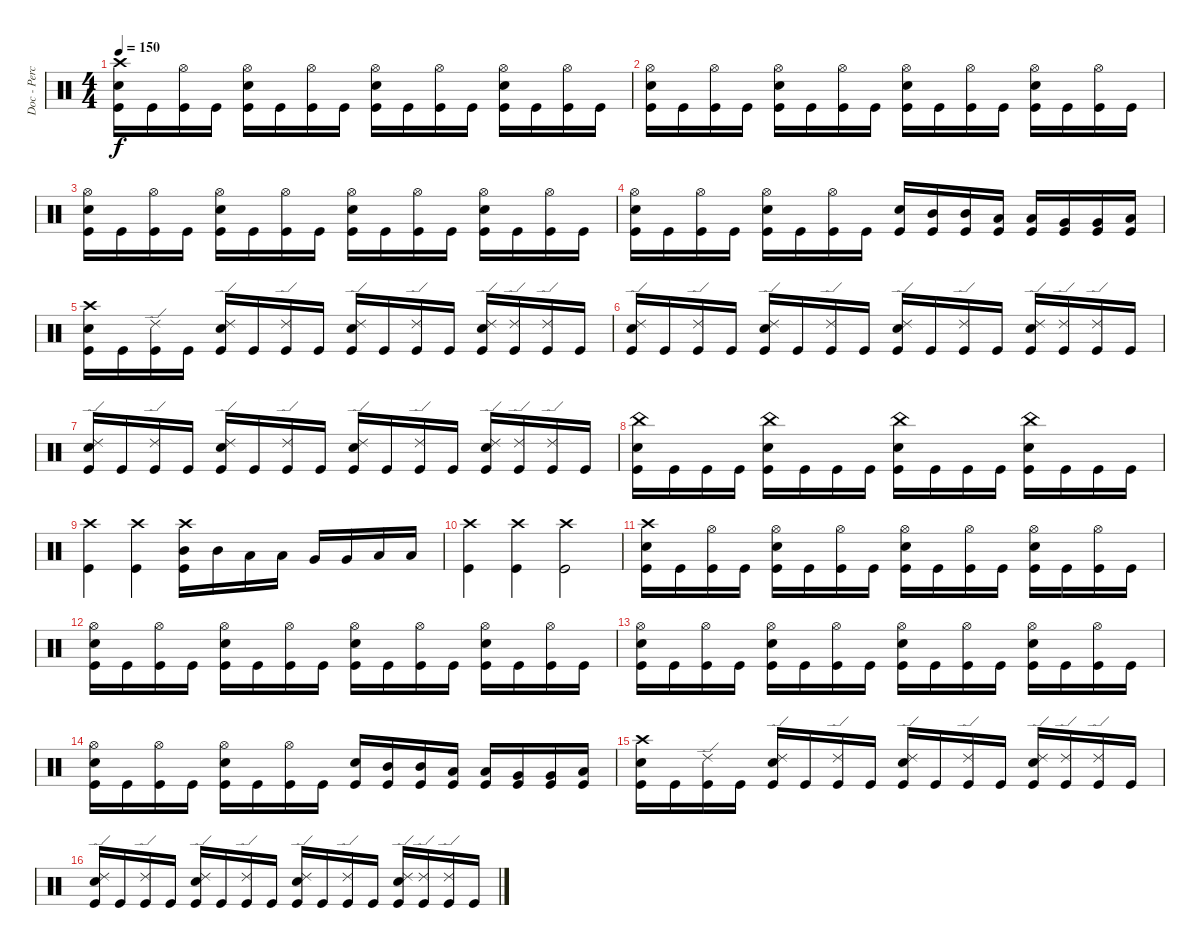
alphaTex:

\track ("Doc - Percussion" "Doc - Perc") {instrument percussion}
\staff {score}
\articulation defaults
\ts (4 4)
\tempo 150
\clef neutral
\ks c
("Crash high (hit)" "Electric Snare (hit)" "Kick (hit)").16{dy f} "Kick (hit)".16 ("Hi-Hat (open)" "Kick (hit)").16 "Kick (hit)".16 ("Hi-Hat (open)" "Electric Snare (hit)" "Kick (hit)").16 "Kick (hit)".16 ("Hi-Hat (open)" "Kick (hit)").16 "Kick (hit)".16 ("Hi-Hat (open)" "Electric Snare (hit)" "Kick (hit)").16 "Kick (hit)".16 ("Hi-Hat (open)" "Kick (hit)").16 "Kick (hit)".16 ("Hi-Hat (open)" "Electric Snare (hit)" "Kick (hit)").16 "Kick (hit)".16 ("Hi-Hat (open)" "Kick (hit)").16 "Kick (hit)".16 |
("Hi-Hat (open)" "Electric Snare (hit)" "Kick (hit)").16 "Kick (hit)".16 ("Hi-Hat (open)" "Kick (hit)").16 "Kick (hit)".16 ("Hi-Hat (open)" "Electric Snare (hit)" "Kick (hit)").16 "Kick (hit)".16 ("Hi-Hat (open)" "Kick (hit)").16 "Kick (hit)".16 ("Hi-Hat (open)" "Electric Snare (hit)" "Kick (hit)").16 "Kick (hit)".16 ("Hi-Hat (open)" "Kick (hit)").16 "Kick (hit)".16 ("Hi-Hat (open)" "Electric Snare (hit)" "Kick (hit)").16 "Kick (hit)".16 ("Hi-Hat (open)" "Kick (hit)").16 "Kick (hit)".16 |
("Hi-Hat (open)" "Electric Snare (hit)" "Kick (hit)").16 "Kick (hit)".16 ("Hi-Hat (open)" "Kick (hit)").16 "Kick (hit)".16 ("Hi-Hat (open)" "Electric Snare (hit)" "Kick (hit)").16 "Kick (hit)".16 ("Hi-Hat (open)" "Kick (hit)").16 "Kick (hit)".16 ("Hi-Hat (open)" "Electric Snare (hit)" "Kick (hit)").16 "Kick (hit)".16 ("Hi-Hat (open)" "Kick (hit)").16 "Kick (hit)".16 ("Hi-Hat (open)" "Electric Snare (hit)" "Kick (hit)").16 "Kick (hit)".16 ("Hi-Hat (open)" "Kick (hit)").16 "Kick (hit)".16 |
("Hi-Hat (open)" "Electric Snare (hit)" "Kick (hit)").16 "Kick (hit)".16 ("Hi-Hat (open)" "Kick (hit)").16 "Kick (hit)".16 ("Hi-Hat (open)" "Electric Snare (hit)" "Kick (hit)").16 "Kick (hit)".16 ("Hi-Hat (open)" "Kick (hit)").16 "Kick (hit)".16 ("Electric Snare (hit)" "Kick (hit)").16 ("Mid Tom (hit)" "Kick (hit)").16 ("Mid Tom (hit)" "Kick (hit)").16 ("Low Tom (hit)" "Kick (hit)").16 ("Low Tom (hit)" "Kick (hit)").16 ("Very Low Tom (hit)" "Kick (hit)").16 ("Very Low Tom (hit)" "Kick (hit)").16 ("Low Floor Tom (hit)" "Kick (hit)").16 |
("Crash high (hit)" "Electric Snare (hit)" "Kick (hit)").16 "Kick (hit)".16 ("Ride (edge) 2" "Kick (hit)").16 "Kick (hit)".16 ("Ride (edge) 2" "Electric Snare (hit)" "Kick (hit)").16 "Kick (hit)".16 ("Ride (edge) 2" "Kick (hit)").16 "Kick (hit)".16 ("Ride (edge) 2" "Electric Snare (hit)" "Kick (hit)").16 "Kick (hit)".16 ("Ride (edge) 2" "Kick (hit)").16 "Kick (hit)".16 ("Ride (edge) 2" "Electric Snare (hit)" "Kick (hit)").16 ("Ride (edge) 2" "Kick (hit)").16 ("Ride (edge) 2" "Kick (hit)").16 "Kick (hit)".16 |
("Ride (edge) 2" "Electric Snare (hit)" "Kick (hit)").16 "Kick (hit)".16 ("Ride (edge) 2" "Kick (hit)").16 "Kick (hit)".16 ("Ride (edge) 2" "Electric Snare (hit)" "Kick (hit)").16 "Kick (hit)".16 ("Ride (edge) 2" "Kick (hit)").16 "Kick (hit)".16 ("Ride (edge) 2" "Electric Snare (hit)" "Kick (hit)").16 "Kick (hit)".16 ("Ride (edge) 2" "Kick (hit)").16 "Kick (hit)".16 ("Ride (edge) 2" "Electric Snare (hit)" "Kick (hit)").16 ("Ride (edge) 2" "Kick (hit)").16 ("Ride (edge) 2" "Kick (hit)").16 "Kick (hit)".16 |
("Ride (edge) 2" "Electric Snare (hit)" "Kick (hit)").16 "Kick (hit)".16 ("Ride (edge) 2" "Kick (hit)").16 "Kick (hit)".16 ("Ride (edge) 2" "Electric Snare (hit)" "Kick (hit)").16 "Kick (hit)".16 ("Ride (edge) 2" "Kick (hit)").16 "Kick (hit)".16 ("Ride (edge) 2" "Electric Snare (hit)" "Kick (hit)").16 "Kick (hit)".16 ("Ride (edge) 2" "Kick (hit)").16 "Kick (hit)".16 ("Ride (edge) 2" "Electric Snare (hit)" "Kick (hit)").16 ("Ride (edge) 2" "Kick (hit)").16 ("Ride (edge) 2" "Kick (hit)").16 "Kick (hit)".16 |
("China (hit)" "Electric Snare (hit)" "Kick (hit)").16 "Kick (hit)".16 "Kick (hit)".16 "Kick (hit)".16 ("China (hit)" "Electric Snare (hit)" "Kick (hit)").16 "Kick (hit)".16 "Kick (hit)".16 "Kick (hit)".16 ("China (hit)" "Electric Snare (hit)" "Kick (hit)").16 "Kick (hit)".16 "Kick (hit)".16 "Kick (hit)".16 ("China (hit)" "Electric Snare (hit)" "Kick (hit)").16 "Kick (hit)".16 "Kick (hit)".16 "Kick (hit)".16 |
("Crash high (hit)" "Kick (hit)").4 ("Crash high (hit)" "Kick (hit)").4 ("Crash high (hit)" "Mid Tom (hit)" "Kick (hit)").16 "Mid Tom (hit)".16 "Low Tom (hit)".16 "Low Tom (hit)".16 "Very Low Tom (hit)".16 "Very Low Tom (hit)".16 "Low Floor Tom (hit)".16 "Low Floor Tom (hit)".16 |
("Crash high (hit)" "Kick (hit)").4 ("Crash high (hit)" "Kick (hit)").4 ("Crash high (hit)" "Kick (hit)").2 |
("Crash high (hit)" "Electric Snare (hit)" "Kick (hit)").16 "Kick (hit)".16 ("Hi-Hat (open)" "Kick (hit)").16 "Kick (hit)".16 ("Hi-Hat (open)" "Electric Snare (hit)" "Kick (hit)").16 "Kick (hit)".16 ("Hi-Hat (open)" "Kick (hit)").16 "Kick (hit)".16 ("Hi-Hat (open)" "Electric Snare (hit)" "Kick (hit)").16 "Kick (hit)".16 ("Hi-Hat (open)" "Kick (hit)").16 "Kick (hit)".16 ("Hi-Hat (open)" "Electric Snare (hit)" "Kick (hit)").16 "Kick (hit)".16 ("Hi-Hat (open)" "Kick (hit)").16 "Kick (hit)".16 |
("Hi-Hat (open)" "Electric Snare (hit)" "Kick (hit)").16 "Kick (hit)".16 ("Hi-Hat (open)" "Kick (hit)").16 "Kick (hit)".16 ("Hi-Hat (open)" "Electric Snare (hit)" "Kick (hit)").16 "Kick (hit)".16 ("Hi-Hat (open)" "Kick (hit)").16 "Kick (hit)".16 ("Hi-Hat (open)" "Electric Snare (hit)" "Kick (hit)").16 "Kick (hit)".16 ("Hi-Hat (open)" "Kick (hit)").16 "Kick (hit)".16 ("Hi-Hat (open)" "Electric Snare (hit)" "Kick (hit)").16 "Kick (hit)".16 ("Hi-Hat (open)" "Kick (hit)").16 "Kick (hit)".16 |
("Hi-Hat (open)" "Electric Snare (hit)" "Kick (hit)").16 "Kick (hit)".16 ("Hi-Hat (open)" "Kick (hit)").16 "Kick (hit)".16 ("Hi-Hat (open)" "Electric Snare (hit)" "Kick (hit)").16 "Kick (hit)".16 ("Hi-Hat (open)" "Kick (hit)").16 "Kick (hit)".16 ("Hi-Hat (open)" "Electric Snare (hit)" "Kick (hit)").16 "Kick (hit)".16 ("Hi-Hat (open)" "Kick (hit)").16 "Kick (hit)".16 ("Hi-Hat (open)" "Electric Snare (hit)" "Kick (hit)").16 "Kick (hit)".16 ("Hi-Hat (open)" "Kick (hit)").16 "Kick (hit)".16 |
("Hi-Hat (open)" "Electric Snare (hit)" "Kick (hit)").16 "Kick (hit)".16 ("Hi-Hat (open)" "Kick (hit)").16 "Kick (hit)".16 ("Hi-Hat (open)" "Electric Snare (hit)" "Kick (hit)").16 "Kick (hit)".16 ("Hi-Hat (open)" "Kick (hit)").16 "Kick (hit)".16 ("Electric Snare (hit)" "Kick (hit)").16 ("Mid Tom (hit)" "Kick (hit)").16 ("Mid Tom (hit)" "Kick (hit)").16 ("Low Tom (hit)" "Kick (hit)").16 ("Low Tom (hit)" "Kick (hit)").16 ("Very Low Tom (hit)" "Kick (hit)").16 ("Very Low Tom (hit)" "Kick (hit)").16 ("Low Floor Tom (hit)" "Kick (hit)").16 |
("Crash high (hit)" "Electric Snare (hit)" "Kick (hit)").16 "Kick (hit)".16 ("Ride (edge) 2" "Kick (hit)").16 "Kick (hit)".16 ("Ride (edge) 2" "Electric Snare (hit)" "Kick (hit)").16 "Kick (hit)".16 ("Ride (edge) 2" "Kick (hit)").16 "Kick (hit)".16 ("Ride (edge) 2" "Electric Snare (hit)" "Kick (hit)").16 "Kick (hit)".16 ("Ride (edge) 2" "Kick (hit)").16 "Kick (hit)".16 ("Ride (edge) 2" "Electric Snare (hit)" "Kick (hit)").16 ("Ride (edge) 2" "Kick (hit)").16 ("Ride (edge) 2" "Kick (hit)").16 "Kick (hit)".16 |
("Ride (edge) 2" "Electric Snare (hit)" "Kick (hit)").16 "Kick (hit)".16 ("Ride (edge) 2" "Kick (hit)").16 "Kick (hit)".16 ("Ride (edge) 2" "Electric Snare (hit)" "Kick (hit)").16 "Kick (hit)".16 ("Ride (edge) 2" "Kick (hit)").16 "Kick (hit)".16 ("Ride (edge) 2" "Electric Snare (hit)" "Kick (hit)").16 "Kick (hit)".16 ("Ride (edge) 2" "Kick (hit)").16 "Kick (hit)".16 ("Ride (edge) 2" "Electric Snare (hit)" "Kick (hit)").16 ("Ride (edge) 2" "Kick (hit)").16 ("Ride (edge) 2" "Kick (hit)").16 "Kick (hit)".16
